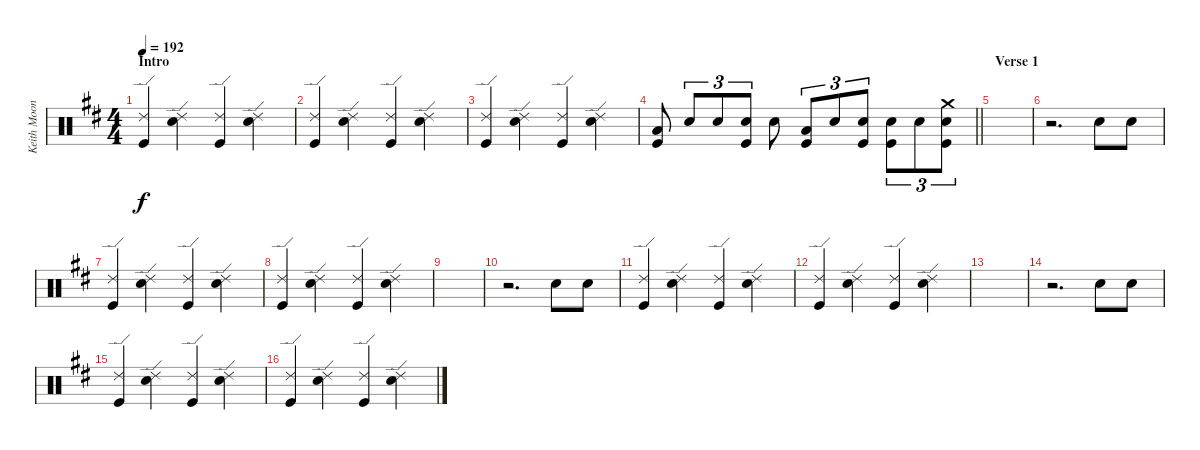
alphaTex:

\track ("Keith Moon - Drums" "Keith Moon") {instrument percussion}
\staff {score}
\articulation defaults
\ts (4 4)
\section ("" "Intro")
\tempo 192
\clef neutral
\ks d
("Ride (edge) 2" "Kick (hit)").4{dy f} ("Ride (edge) 2" "Electric Snare (hit)").4 ("Ride (edge) 2" "Kick (hit)").4 ("Ride (edge) 2" "Electric Snare (hit)").4 |
("Ride (edge) 2" "Kick (hit)").4 ("Ride (edge) 2" "Electric Snare (hit)").4 ("Ride (edge) 2" "Kick (hit)").4 ("Ride (edge) 2" "Electric Snare (hit)").4 |
("Ride (edge) 2" "Kick (hit)").4 ("Ride (edge) 2" "Electric Snare (hit)").4 ("Ride (edge) 2" "Kick (hit)").4 ("Ride (edge) 2" "Electric Snare (hit)").4 |
\barLineRight lightlight
("Low Floor Tom (hit)" "Kick (hit)").8 "Electric Snare (hit)".8{tu (3 2)} "Electric Snare (hit)".8{tu (3 2)} ("Electric Snare (hit)" "Kick (hit)").8{tu (3 2)} "Electric Snare (hit)".8 ("Low Floor Tom (hit)" "Kick (hit)").8{tu (3 2)} "Electric Snare (hit)".8{tu (3 2)} ("Electric Snare (hit)" "Kick (hit)").8{tu (3 2)} ("Electric Snare (hit)" "Kick (hit)").8{tu (3 2)} "Electric Snare (hit)".8{tu (3 2)} ("Crash medium (hit)" "Electric Snare (hit)" "Kick (hit)").8{tu (3 2)} |
\section ("" "Verse 1")
|
r.2{d} "Electric Snare (hit)".8 "Electric Snare (hit)".8 |
("Ride (edge) 2" "Kick (hit)").4 ("Ride (edge) 2" "Electric Snare (hit)").4 ("Ride (edge) 2" "Kick (hit)").4 ("Ride (edge) 2" "Electric Snare (hit)").4 |
("Ride (edge) 2" "Kick (hit)").4 ("Ride (edge) 2" "Electric Snare (hit)").4 ("Ride (edge) 2" "Kick (hit)").4 ("Ride (edge) 2" "Electric Snare (hit)").4 |
|
r.2{d} "Electric Snare (hit)".8 "Electric Snare (hit)".8 |
("Ride (edge) 2" "Kick (hit)").4 ("Ride (edge) 2" "Electric Snare (hit)").4 ("Ride (edge) 2" "Kick (hit)").4 ("Ride (edge) 2" "Electric Snare (hit)").4 |
("Ride (edge) 2" "Kick (hit)").4 ("Ride (edge) 2" "Electric Snare (hit)").4 ("Ride (edge) 2" "Kick (hit)").4 ("Ride (edge) 2" "Electric Snare (hit)").4 |
|
r.2{d} "Electric Snare (hit)".8 "Electric Snare (hit)".8 |
("Ride (edge) 2" "Kick (hit)").4 ("Ride (edge) 2" "Electric Snare (hit)").4 ("Ride (edge) 2" "Kick (hit)").4 ("Ride (edge) 2" "Electric Snare (hit)").4 |
("Ride (edge) 2" "Kick (hit)").4 ("Ride (edge) 2" "Electric Snare (hit)").4 ("Ride (edge) 2" "Kick (hit)").4 ("Ride (edge) 2" "Electric Snare (hit)").4
